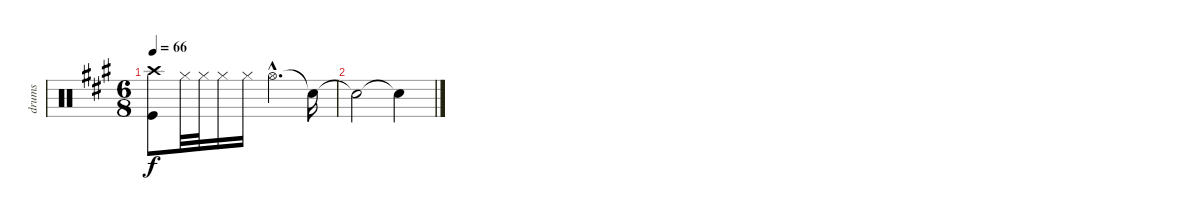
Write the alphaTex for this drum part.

\track ("drums" "drums") {instrument percussion}
\staff {score}
\articulation defaults
\ts (6 8)
\tempo 66
\clef neutral
\ks f#minor
("Crash high (hit)" "Kick (hit)").8{dy f} "Hi-Hat (closed)".32 "Hi-Hat (closed)".32 "Hi-Hat (closed)".16 "Hi-Hat (closed)".16 "Hi-Hat (open)"{hac}.4{d} "Snare (hit)"{t}.16 |
"Snare (hit)"{t}.2 "Snare (hit)"{t}.4
